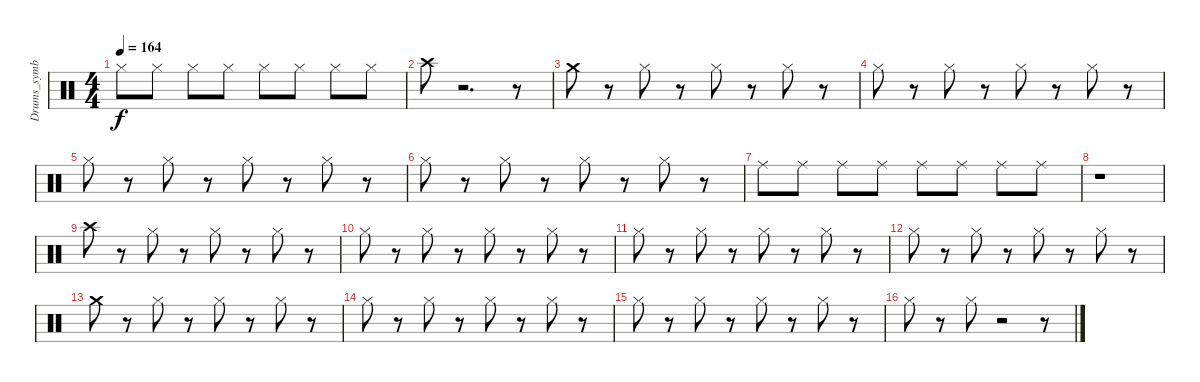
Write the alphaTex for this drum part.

\track ("Drums_symbal" "Drums_symb") {instrument percussion}
\staff {score}
\articulation defaults
\ts (4 4)
\tempo 164
\clef neutral
\ks c "Hi-Hat (closed)".8{dy f} "Hi-Hat (closed)".8 "Hi-Hat (closed)".8 "Hi-Hat (closed)".8 "Hi-Hat (closed)".8 "Hi-Hat (closed)".8 "Hi-Hat (closed)".8 "Hi-Hat (closed)".8
|
"Crash high (hit)".8 r.2{d} r.8 |
"Crash medium (hit)".8 r.8 "Hi-Hat (closed)".8 r.8 "Hi-Hat (closed)".8 r.8 "Hi-Hat (closed)".8 r.8 |
"Hi-Hat (closed)".8 r.8 "Hi-Hat (closed)".8 r.8 "Hi-Hat (closed)".8 r.8 "Hi-Hat (closed)".8 r.8 |
"Hi-Hat (closed)".8 r.8 "Hi-Hat (closed)".8 r.8 "Hi-Hat (closed)".8 r.8 "Hi-Hat (closed)".8 r.8 |
"Hi-Hat (closed)".8 r.8 "Hi-Hat (closed)".8 r.8 "Hi-Hat (closed)".8 r.8 "Hi-Hat (closed)".8 r.8 |
"Ride (middle)".8 "Ride (middle)".8 "Ride (middle)".8 "Ride (middle)".8 "Ride (middle)".8 "Ride (middle)".8 "Ride (middle)".8 "Ride (middle)".8 |
r.1 |
"Crash high (hit)".8 r.8 "Hi-Hat (closed)".8 r.8 "Hi-Hat (closed)".8 r.8 "Hi-Hat (closed)".8 r.8 |
"Hi-Hat (closed)".8 r.8 "Hi-Hat (closed)".8 r.8 "Hi-Hat (closed)".8 r.8 "Hi-Hat (closed)".8 r.8 |
"Hi-Hat (closed)".8 r.8 "Hi-Hat (closed)".8 r.8 "Hi-Hat (closed)".8 r.8 "Hi-Hat (closed)".8 r.8 |
"Hi-Hat (closed)".8 r.8 "Hi-Hat (closed)".8 r.8 "Hi-Hat (closed)".8 r.8 "Hi-Hat (closed)".8 r.8 |
"Crash medium (hit)".8 r.8 "Hi-Hat (closed)".8 r.8 "Hi-Hat (closed)".8 r.8 "Hi-Hat (closed)".8 r.8 |
"Hi-Hat (closed)".8 r.8 "Hi-Hat (closed)".8 r.8 "Hi-Hat (closed)".8 r.8 "Hi-Hat (closed)".8 r.8 |
"Hi-Hat (closed)".8 r.8 "Hi-Hat (closed)".8 r.8 "Hi-Hat (closed)".8 r.8 "Hi-Hat (closed)".8 r.8 |
"Hi-Hat (closed)".8 r.8 "Hi-Hat (closed)".8 r.2 r.8
